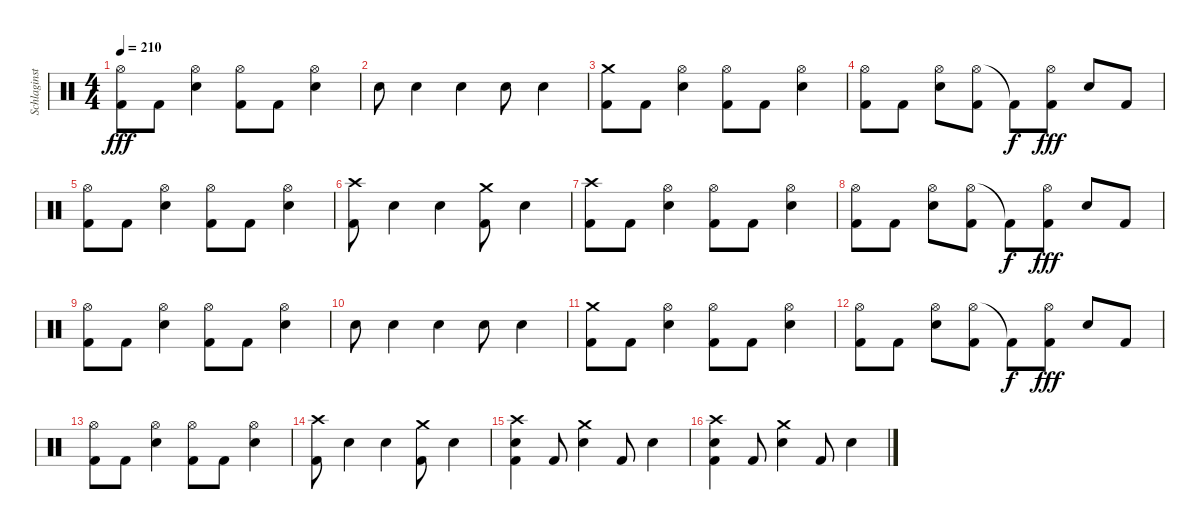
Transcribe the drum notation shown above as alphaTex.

\track ("Schlaginstrumente - Auswahl" "Schlaginst") {instrument percussion}
\staff {score}
\articulation defaults
\ts (4 4)
\tempo 210
\clef neutral
\ks c
("Hi-Hat (open)" "Kick (hit) 2").8{dy fff} "Kick (hit) 2".8 ("Hi-Hat (open)" "Electric Snare (hit)").4 ("Hi-Hat (open)" "Kick (hit) 2").8 "Kick (hit) 2".8 ("Hi-Hat (open)" "Electric Snare (hit)").4 |
"Electric Snare (hit)".8 "Electric Snare (hit)".4 "Electric Snare (hit)".4 "Electric Snare (hit)".8 "Electric Snare (hit)".4 |
("Crash medium (hit)" "Kick (hit) 2").8 "Kick (hit) 2".8 ("Hi-Hat (open)" "Electric Snare (hit)").4 ("Hi-Hat (open)" "Kick (hit) 2").8 "Kick (hit) 2".8 ("Hi-Hat (open)" "Electric Snare (hit)").4 |
("Hi-Hat (open)" "Kick (hit) 2").8 "Kick (hit) 2".8 ("Hi-Hat (open)" "Electric Snare (hit)").8 ("Hi-Hat (open)" "Kick (hit) 2").8 "Kick (hit) 2"{t}.8{dy f} ("Hi-Hat (open)" "Kick (hit) 2").8{dy fff} "Electric Snare (hit)".8 "Kick (hit) 2".8 |
("Hi-Hat (open)" "Kick (hit) 2").8 "Kick (hit) 2".8 ("Hi-Hat (open)" "Electric Snare (hit)").4 ("Hi-Hat (open)" "Kick (hit) 2").8 "Kick (hit) 2".8 ("Hi-Hat (open)" "Electric Snare (hit)").4 |
("Crash high (hit)" "Kick (hit) 2").8 "Electric Snare (hit)".4 "Electric Snare (hit)".4 ("Crash medium (hit)" "Kick (hit) 2").8 "Electric Snare (hit)".4 |
("Crash high (hit)" "Kick (hit) 2").8 "Kick (hit) 2".8 ("Hi-Hat (open)" "Electric Snare (hit)").4 ("Hi-Hat (open)" "Kick (hit) 2").8 "Kick (hit) 2".8 ("Hi-Hat (open)" "Electric Snare (hit)").4 |
("Hi-Hat (open)" "Kick (hit) 2").8 "Kick (hit) 2".8 ("Hi-Hat (open)" "Electric Snare (hit)").8 ("Hi-Hat (open)" "Kick (hit) 2").8 "Kick (hit) 2"{t}.8{dy f} ("Hi-Hat (open)" "Kick (hit) 2").8{dy fff} "Electric Snare (hit)".8 "Kick (hit) 2".8 |
("Hi-Hat (open)" "Kick (hit) 2").8 "Kick (hit) 2".8 ("Hi-Hat (open)" "Electric Snare (hit)").4 ("Hi-Hat (open)" "Kick (hit) 2").8 "Kick (hit) 2".8 ("Hi-Hat (open)" "Electric Snare (hit)").4 |
"Electric Snare (hit)".8 "Electric Snare (hit)".4 "Electric Snare (hit)".4 "Electric Snare (hit)".8 "Electric Snare (hit)".4 |
("Crash medium (hit)" "Kick (hit) 2").8 "Kick (hit) 2".8 ("Hi-Hat (open)" "Electric Snare (hit)").4 ("Hi-Hat (open)" "Kick (hit) 2").8 "Kick (hit) 2".8 ("Hi-Hat (open)" "Electric Snare (hit)").4 |
("Hi-Hat (open)" "Kick (hit) 2").8 "Kick (hit) 2".8 ("Hi-Hat (open)" "Electric Snare (hit)").8 ("Hi-Hat (open)" "Kick (hit) 2").8 "Kick (hit) 2"{t}.8{dy f} ("Hi-Hat (open)" "Kick (hit) 2").8{dy fff} "Electric Snare (hit)".8 "Kick (hit) 2".8 |
("Hi-Hat (open)" "Kick (hit) 2").8 "Kick (hit) 2".8 ("Hi-Hat (open)" "Electric Snare (hit)").4 ("Hi-Hat (open)" "Kick (hit) 2").8 "Kick (hit) 2".8 ("Hi-Hat (open)" "Electric Snare (hit)").4 |
("Crash high (hit)" "Kick (hit) 2").8 "Electric Snare (hit)".4 "Electric Snare (hit)".4 ("Crash medium (hit)" "Kick (hit) 2").8 "Electric Snare (hit)".4 |
("Crash high (hit)" "Electric Snare (hit)" "Kick (hit) 2").4 "Kick (hit) 2".8 ("Crash medium (hit)" "Electric Snare (hit)").4 "Kick (hit) 2".8 "Electric Snare (hit)".4 |
("Crash high (hit)" "Electric Snare (hit)" "Kick (hit) 2").4 "Kick (hit) 2".8 ("Crash medium (hit)" "Electric Snare (hit)").4 "Kick (hit) 2".8 "Electric Snare (hit)".4
